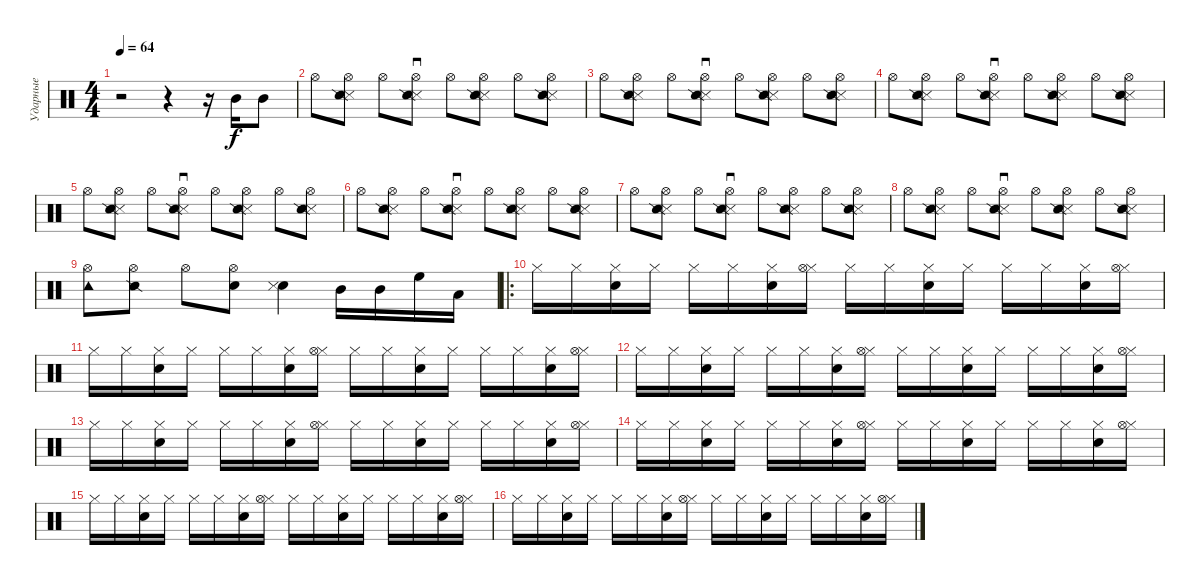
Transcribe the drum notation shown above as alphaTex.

\track ("Ударные" "Ударные") {instrument percussion}
\staff {score}
\articulation defaults
\ts (4 4)
\tempo 64
\clef neutral
\ks c
r.2{dy f} r.4 r.16 "Mid Tom (hit)".16 "Mid Tom (hit)".8 |
"Hi-Hat (open)".8{volume 7} ("Hi-Hat (open)" "Snare (side stick) 3" "Snare (side stick) 2").8 "Hi-Hat (open)".8 ("Hi-Hat (open)" "Snare (side stick) 3" "Snare (side stick) 2").8{sd} "Hi-Hat (open)".8 ("Hi-Hat (open)" "Snare (side stick) 3" "Snare (side stick) 2").8 "Hi-Hat (open)".8 ("Hi-Hat (open)" "Snare (side stick) 3" "Snare (side stick) 2").8 |
"Hi-Hat (open)".8{volume 7} ("Hi-Hat (open)" "Snare (side stick) 3" "Snare (side stick) 2").8 "Hi-Hat (open)".8 ("Hi-Hat (open)" "Snare (side stick) 3" "Snare (side stick) 2").8{sd} "Hi-Hat (open)".8 ("Hi-Hat (open)" "Snare (side stick) 3" "Snare (side stick) 2").8 "Hi-Hat (open)".8 ("Hi-Hat (open)" "Snare (side stick) 3" "Snare (side stick) 2").8 |
"Hi-Hat (open)".8{volume 7} ("Hi-Hat (open)" "Snare (side stick) 3" "Snare (side stick) 2").8 "Hi-Hat (open)".8 ("Hi-Hat (open)" "Snare (side stick) 3" "Snare (side stick) 2").8{sd} "Hi-Hat (open)".8 ("Hi-Hat (open)" "Snare (side stick) 3" "Snare (side stick) 2").8 "Hi-Hat (open)".8 ("Hi-Hat (open)" "Snare (side stick) 3" "Snare (side stick) 2").8 |
"Hi-Hat (open)".8{volume 7} ("Hi-Hat (open)" "Snare (side stick) 3" "Snare (side stick) 2").8 "Hi-Hat (open)".8 ("Hi-Hat (open)" "Snare (side stick) 3" "Snare (side stick) 2").8{sd} "Hi-Hat (open)".8 ("Hi-Hat (open)" "Snare (side stick) 3" "Snare (side stick) 2").8 "Hi-Hat (open)".8 ("Hi-Hat (open)" "Snare (side stick) 3" "Snare (side stick) 2").8 |
"Hi-Hat (open)".8{volume 7} ("Hi-Hat (open)" "Snare (side stick) 3" "Snare (side stick) 2").8 "Hi-Hat (open)".8 ("Hi-Hat (open)" "Snare (side stick) 3" "Snare (side stick) 2").8{sd} "Hi-Hat (open)".8 ("Hi-Hat (open)" "Snare (side stick) 3" "Snare (side stick) 2").8 "Hi-Hat (open)".8 ("Hi-Hat (open)" "Snare (side stick) 3" "Snare (side stick) 2").8 |
"Hi-Hat (open)".8{volume 7} ("Hi-Hat (open)" "Snare (side stick) 3" "Snare (side stick) 2").8 "Hi-Hat (open)".8 ("Hi-Hat (open)" "Snare (side stick) 3" "Snare (side stick) 2").8{sd} "Hi-Hat (open)".8 ("Hi-Hat (open)" "Snare (side stick) 3" "Snare (side stick) 2").8 "Hi-Hat (open)".8 ("Hi-Hat (open)" "Snare (side stick) 3" "Snare (side stick) 2").8 |
"Hi-Hat (open)".8{volume 7} ("Hi-Hat (open)" "Snare (side stick) 3" "Snare (side stick) 2").8 "Hi-Hat (open)".8 ("Hi-Hat (open)" "Snare (side stick) 3" "Snare (side stick) 2").8{sd} "Hi-Hat (open)".8 ("Hi-Hat (open)" "Snare (side stick) 3" "Snare (side stick) 2").8 "Hi-Hat (open)".8 ("Hi-Hat (open)" "Snare (side stick) 3" "Snare (side stick) 2").8 |
("Hi-Hat (open)" "Tambourine (hit)").8 ("Hi-Hat (open)" "Snare (side stick) 2").8 "Hi-Hat (open)".8 ("Hi-Hat (open)" "Snare (hit)").8 ("Snare (hit) 2" "Snare (side stick) 3").4{volume 10} "Mid Tom (hit)".16{volume 10} "Mid Tom (hit)".16 "High Floor Tom (hit)".16 "Low Tom (hit)".16 |
\ro "Hi-Hat (closed)".16 "Hi-Hat (closed)".16
("Hi-Hat (closed)" "Electric Snare (hit)").16 "Hi-Hat (closed)".16 "Hi-Hat (closed)".16 "Hi-Hat (closed)".16 ("Hi-Hat (closed)" "Electric Snare (hit)").16 ("Hi-Hat (closed)" "Hi-Hat (open)").16 "Hi-Hat (closed)".16 "Hi-Hat (closed)".16 ("Hi-Hat (closed)" "Electric Snare (hit)").16 "Hi-Hat (closed)".16 "Hi-Hat (closed)".16 "Hi-Hat (closed)".16 ("Hi-Hat (closed)" "Electric Snare (hit)").16 ("Hi-Hat (closed)" "Hi-Hat (open)").16 |
"Hi-Hat (closed)".16 "Hi-Hat (closed)".16 ("Hi-Hat (closed)" "Electric Snare (hit)").16 "Hi-Hat (closed)".16 "Hi-Hat (closed)".16 "Hi-Hat (closed)".16 ("Hi-Hat (closed)" "Electric Snare (hit)").16 ("Hi-Hat (closed)" "Hi-Hat (open)").16 "Hi-Hat (closed)".16 "Hi-Hat (closed)".16 ("Hi-Hat (closed)" "Electric Snare (hit)").16 "Hi-Hat (closed)".16 "Hi-Hat (closed)".16 "Hi-Hat (closed)".16 ("Hi-Hat (closed)" "Electric Snare (hit)").16 ("Hi-Hat (closed)" "Hi-Hat (open)").16 |
"Hi-Hat (closed)".16 "Hi-Hat (closed)".16 ("Hi-Hat (closed)" "Electric Snare (hit)").16 "Hi-Hat (closed)".16 "Hi-Hat (closed)".16 "Hi-Hat (closed)".16 ("Hi-Hat (closed)" "Electric Snare (hit)").16 ("Hi-Hat (closed)" "Hi-Hat (open)").16 "Hi-Hat (closed)".16 "Hi-Hat (closed)".16 ("Hi-Hat (closed)" "Electric Snare (hit)").16 "Hi-Hat (closed)".16 "Hi-Hat (closed)".16 "Hi-Hat (closed)".16 ("Hi-Hat (closed)" "Electric Snare (hit)").16 ("Hi-Hat (closed)" "Hi-Hat (open)").16 |
"Hi-Hat (closed)".16 "Hi-Hat (closed)".16 ("Hi-Hat (closed)" "Electric Snare (hit)").16 "Hi-Hat (closed)".16 "Hi-Hat (closed)".16 "Hi-Hat (closed)".16 ("Hi-Hat (closed)" "Electric Snare (hit)").16 ("Hi-Hat (closed)" "Hi-Hat (open)").16 "Hi-Hat (closed)".16 "Hi-Hat (closed)".16 ("Hi-Hat (closed)" "Electric Snare (hit)").16 "Hi-Hat (closed)".16 "Hi-Hat (closed)".16 "Hi-Hat (closed)".16 ("Hi-Hat (closed)" "Electric Snare (hit)").16 ("Hi-Hat (closed)" "Hi-Hat (open)").16 |
"Hi-Hat (closed)".16 "Hi-Hat (closed)".16 ("Hi-Hat (closed)" "Electric Snare (hit)").16 "Hi-Hat (closed)".16 "Hi-Hat (closed)".16 "Hi-Hat (closed)".16 ("Hi-Hat (closed)" "Electric Snare (hit)").16 ("Hi-Hat (closed)" "Hi-Hat (open)").16 "Hi-Hat (closed)".16 "Hi-Hat (closed)".16 ("Hi-Hat (closed)" "Electric Snare (hit)").16 "Hi-Hat (closed)".16 "Hi-Hat (closed)".16 "Hi-Hat (closed)".16 ("Hi-Hat (closed)" "Electric Snare (hit)").16 ("Hi-Hat (closed)" "Hi-Hat (open)").16 |
"Hi-Hat (closed)".16 "Hi-Hat (closed)".16 ("Hi-Hat (closed)" "Electric Snare (hit)").16 "Hi-Hat (closed)".16 "Hi-Hat (closed)".16 "Hi-Hat (closed)".16 ("Hi-Hat (closed)" "Electric Snare (hit)").16 ("Hi-Hat (closed)" "Hi-Hat (open)").16 "Hi-Hat (closed)".16 "Hi-Hat (closed)".16 ("Hi-Hat (closed)" "Electric Snare (hit)").16 "Hi-Hat (closed)".16 "Hi-Hat (closed)".16 "Hi-Hat (closed)".16 ("Hi-Hat (closed)" "Electric Snare (hit)").16 ("Hi-Hat (closed)" "Hi-Hat (open)").16 |
"Hi-Hat (closed)".16 "Hi-Hat (closed)".16 ("Hi-Hat (closed)" "Electric Snare (hit)").16 "Hi-Hat (closed)".16 "Hi-Hat (closed)".16 "Hi-Hat (closed)".16 ("Hi-Hat (closed)" "Electric Snare (hit)").16 ("Hi-Hat (closed)" "Hi-Hat (open)").16 "Hi-Hat (closed)".16 "Hi-Hat (closed)".16 ("Hi-Hat (closed)" "Electric Snare (hit)").16 "Hi-Hat (closed)".16 "Hi-Hat (closed)".16 "Hi-Hat (closed)".16 ("Hi-Hat (closed)" "Electric Snare (hit)").16 ("Hi-Hat (closed)" "Hi-Hat (open)").16
